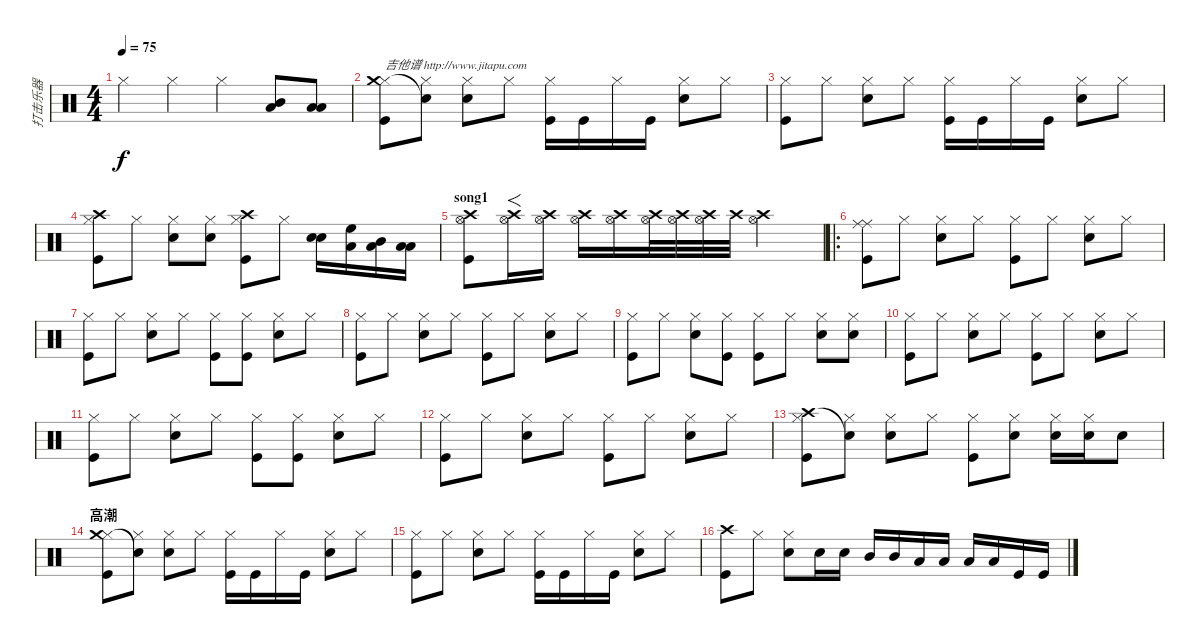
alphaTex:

\track ("打击乐器" "打击乐器") {instrument percussion}
\staff {score}
\articulation defaults
\ts (4 4)
\tempo 75
\clef neutral
\ks c "Hi-Hat (closed)".4{dy f} "Hi-Hat (closed)".4 "Hi-Hat (closed)".4
("Mid Tom (hit)" "Low Tom (hit)").8 ("Low Tom (hit)" "Low Floor Tom (hit)").8 |
("Hi-Hat (closed)" "Crash medium (hit)" "Kick (hit)").8{txt "吉他谱 http://www.jitapu.com"} ("Hi-Hat (closed)" "Snare (hit)"{t}).8 ("Hi-Hat (closed)" "Electric Snare (hit)").8 "Hi-Hat (closed)".8 ("Hi-Hat (closed)" "Kick (hit)").16 "Kick (hit)".16 "Hi-Hat (closed)".16 "Kick (hit)".16 ("Hi-Hat (closed)" "Electric Snare (hit)").8 "Hi-Hat (closed)".8 |
("Hi-Hat (closed)" "Kick (hit)").8 "Hi-Hat (closed)".8 ("Hi-Hat (closed)" "Electric Snare (hit)").8 "Hi-Hat (closed)".8 ("Hi-Hat (closed)" "Kick (hit)").16 "Kick (hit)".16 "Hi-Hat (closed)".16 "Kick (hit)".16 ("Hi-Hat (closed)" "Electric Snare (hit)").8 "Hi-Hat (closed)".8 |
("Hi-Hat (closed)" "Crash high (hit)" "Kick (hit)").8 "Hi-Hat (closed)".8 ("Hi-Hat (closed)" "Electric Snare (hit)").8 ("Hi-Hat (closed)" "Electric Snare (hit)").8 ("Hi-Hat (closed)" "Crash high (hit)" "Kick (hit)").8 "Hi-Hat (closed)".8 ("Snare (hit) 2" "Electric Snare (hit)").16 ("High Floor Tom (hit)" "Low Tom (hit)").16 ("Mid Tom (hit)" "Low Tom (hit)").16 ("Low Tom (hit)" "Low Floor Tom (hit)").16 |
\section ("" "song1")
("Crash high (hit)" "Hi-Hat (open)"{tr (49 16)} "Kick (hit)").8 ("Crash high (hit)" "Hi-Hat (open)").16{f} ("Crash high (hit)" "Hi-Hat (open)").16 ("Crash high (hit)" "Hi-Hat (open)").16 ("Crash high (hit)" "Hi-Hat (open)").16 ("Crash high (hit)" "Hi-Hat (open)").32 ("Crash high (hit)" "Hi-Hat (open)").32 ("Crash high (hit)" "Hi-Hat (open)").32 "Crash high (hit)".32 ("Crash high (hit)" "Hi-Hat (open)").2 |
\ro
("Ride (middle)" "Ride (middle)" "Kick (hit)").8 "Hi-Hat (closed)".8 ("Hi-Hat (closed)" "Electric Snare (hit)").8 "Hi-Hat (closed)".8 ("Hi-Hat (closed)" "Kick (hit)").8 "Hi-Hat (closed)".8 ("Hi-Hat (closed)" "Electric Snare (hit)").8 "Hi-Hat (closed)".8 |
("Hi-Hat (closed)" "Kick (hit)").8 "Hi-Hat (closed)".8 ("Hi-Hat (closed)" "Electric Snare (hit)").8 "Hi-Hat (closed)".8 ("Hi-Hat (closed)" "Kick (hit)").8 ("Hi-Hat (closed)" "Kick (hit)").8 ("Hi-Hat (closed)" "Electric Snare (hit)").8 "Hi-Hat (closed)".8 |
("Hi-Hat (closed)" "Kick (hit)").8 "Hi-Hat (closed)".8 ("Hi-Hat (closed)" "Electric Snare (hit)").8 "Hi-Hat (closed)".8 ("Hi-Hat (closed)" "Kick (hit)").8 "Hi-Hat (closed)".8 ("Hi-Hat (closed)" "Electric Snare (hit)").8 "Hi-Hat (closed)".8 |
("Hi-Hat (closed)" "Kick (hit)").8 "Hi-Hat (closed)".8 ("Hi-Hat (closed)" "Electric Snare (hit)").8 ("Hi-Hat (closed)" "Kick (hit)").8 ("Hi-Hat (closed)" "Kick (hit)").8 "Hi-Hat (closed)".8 ("Hi-Hat (closed)" "Electric Snare (hit)").8 ("Hi-Hat (closed)" "Electric Snare (hit)").8 |
("Hi-Hat (closed)" "Kick (hit)").8 "Hi-Hat (closed)".8 ("Hi-Hat (closed)" "Electric Snare (hit)").8 "Hi-Hat (closed)".8 ("Hi-Hat (closed)" "Kick (hit)").8 "Hi-Hat (closed)".8 ("Hi-Hat (closed)" "Electric Snare (hit)").8 "Hi-Hat (closed)".8 |
("Hi-Hat (closed)" "Kick (hit)").8 "Hi-Hat (closed)".8 ("Hi-Hat (closed)" "Electric Snare (hit)").8 "Hi-Hat (closed)".8 ("Hi-Hat (closed)" "Kick (hit)").8 ("Hi-Hat (closed)" "Kick (hit)").8 ("Hi-Hat (closed)" "Electric Snare (hit)").8 "Hi-Hat (closed)".8 |
("Hi-Hat (closed)" "Kick (hit)").8 "Hi-Hat (closed)".8 ("Hi-Hat (closed)" "Electric Snare (hit)").8 "Hi-Hat (closed)".8 ("Hi-Hat (closed)" "Kick (hit)").8 "Hi-Hat (closed)".8 ("Hi-Hat (closed)" "Electric Snare (hit)").8 "Hi-Hat (closed)".8 |
("Hi-Hat (closed)" "Crash high (hit)" "Kick (hit)").8 ("Hi-Hat (closed)" "Snare (hit)"{t}).8 ("Hi-Hat (closed)" "Electric Snare (hit)").8 "Hi-Hat (closed)".8 ("Hi-Hat (closed)" "Kick (hit)").8 ("Hi-Hat (closed)" "Electric Snare (hit)").8 ("Hi-Hat (closed)" "Electric Snare (hit)").16 ("Hi-Hat (closed)" "Electric Snare (hit)").16 "Electric Snare (hit)".8 |
\section ("" "高潮")
("Hi-Hat (closed)" "Crash medium (hit)" "Kick (hit)").8 ("Hi-Hat (closed)" "Snare (hit)"{t}).8 ("Hi-Hat (closed)" "Electric Snare (hit)").8 "Hi-Hat (closed)".8 ("Hi-Hat (closed)" "Kick (hit)").16 "Kick (hit)".16 "Hi-Hat (closed)".16 "Kick (hit)".16 ("Hi-Hat (closed)" "Electric Snare (hit)").8 "Hi-Hat (closed)".8 |
("Hi-Hat (closed)" "Kick (hit)").8 "Hi-Hat (closed)".8 ("Hi-Hat (closed)" "Electric Snare (hit)").8 "Hi-Hat (closed)".8 ("Hi-Hat (closed)" "Kick (hit)").16 "Kick (hit)".16 "Hi-Hat (closed)".16 "Kick (hit)".16 ("Hi-Hat (closed)" "Electric Snare (hit)").8 "Hi-Hat (closed)".8 |
("Crash high (hit)" "Kick (hit)").8 "Hi-Hat (closed)".8 ("Hi-Hat (closed)" "Electric Snare (hit)").8 "Electric Snare (hit)".16 "Electric Snare (hit)".16 "Mid Tom (hit)".16 "Mid Tom (hit)".16 "Low Tom (hit)".16 "Low Tom (hit)".16 "Low Floor Tom (hit)".16 "Low Floor Tom (hit)".16 "Kick (hit)".16 "Kick (hit)".16
